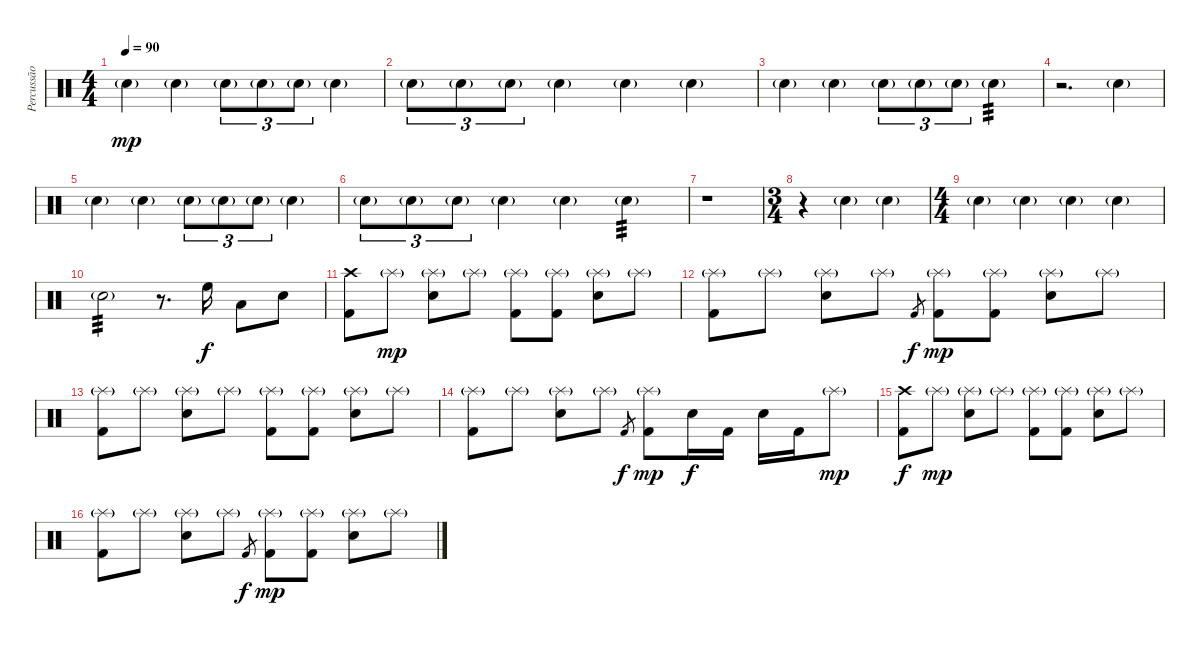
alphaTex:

\track ("Percussão" "Percussão") {instrument percussion}
\staff {score}
\articulation defaults
\ts (4 4)
\tempo 90
\clef neutral
\ks c "Snare (hit) 2"{g}.4{dy mp} "Snare (hit) 2"{g}.4 "Snare (hit) 2"{g}.8{tu (3 2)} "Snare (hit) 2"{g}.8{tu (3 2)} "Snare (hit) 2"{g}.8{tu (3 2)} "Snare (hit) 2"{g}.4
|
"Snare (hit) 2"{g}.8{tu (3 2)} "Snare (hit) 2"{g}.8{tu (3 2)} "Snare (hit) 2"{g}.8{tu (3 2)} "Snare (hit) 2"{g}.4 "Snare (hit) 2"{g}.4 "Snare (hit) 2"{g}.4 |
"Snare (hit) 2"{g}.4 "Snare (hit) 2"{g}.4 "Snare (hit) 2"{g}.8{tu (3 2)} "Snare (hit) 2"{g}.8{tu (3 2)} "Snare (hit) 2"{g}.8{tu (3 2)} "Snare (hit) 2"{g}.4{tp 3} |
r.2{d} "Snare (hit) 2"{g}.4 |
"Snare (hit) 2"{g}.4 "Snare (hit) 2"{g}.4 "Snare (hit) 2"{g}.8{tu (3 2)} "Snare (hit) 2"{g}.8{tu (3 2)} "Snare (hit) 2"{g}.8{tu (3 2)} "Snare (hit) 2"{g pm}.4 |
"Snare (hit) 2"{g}.8{tu (3 2)} "Snare (hit) 2"{g}.8{tu (3 2)} "Snare (hit) 2"{g}.8{tu (3 2)} "Snare (hit) 2"{g}.4 "Snare (hit) 2"{g}.4 "Snare (hit) 2"{g}.4{tp 3} |
r.1 |
\ts (3 4)
r.4 "Snare (hit) 2"{g}.4 "Snare (hit) 2"{g}.4 |
\ts (4 4)
"Snare (hit) 2"{g}.4 "Snare (hit) 2"{g}.4 "Snare (hit) 2"{g}.4 "Snare (hit) 2"{g}.4 |
"Snare (hit) 2"{g}.2{tp 3} r.8{d} "High Floor Tom (hit)".16{dy f volume 13} "Low Tom (hit)".8 "Snare (hit) 2".8 |
("Kick (hit) 2" "Crash high (hit)").8 "Splash (hit)"{g}.8{dy mp} ("Snare (hit) 2" "Splash (hit)"{g}).8 "Splash (hit)"{g}.8 ("Kick (hit) 2" "Splash (hit)"{g}).8 ("Kick (hit) 2" "Splash (hit)"{g}).8 ("Snare (hit) 2" "Splash (hit)"{g}).8 "Splash (hit)"{g}.8 |
("Kick (hit) 2" "Splash (hit)"{g}).8 "Splash (hit)"{g}.8 ("Snare (hit) 2" "Splash (hit)"{g}).8 "Splash (hit)"{g}.8 "Kick (hit) 2".8{gr dy f} ("Kick (hit) 2" "Splash (hit)"{g}).8{dy mp} ("Kick (hit) 2" "Splash (hit)"{g}).8 ("Snare (hit) 2" "Splash (hit)"{g}).8 "Splash (hit)"{g}.8 |
("Kick (hit) 2" "Splash (hit)"{g}).8 "Splash (hit)"{g}.8 ("Snare (hit) 2" "Splash (hit)"{g}).8 "Splash (hit)"{g}.8 ("Kick (hit) 2" "Splash (hit)"{g}).8 ("Kick (hit) 2" "Splash (hit)"{g}).8 ("Snare (hit) 2" "Splash (hit)"{g}).8 "Splash (hit)"{g}.8 |
("Kick (hit) 2" "Splash (hit)"{g}).8 "Splash (hit)"{g}.8 ("Snare (hit) 2" "Splash (hit)"{g}).8 "Splash (hit)"{g}.8 "Kick (hit) 2".8{gr dy f} ("Kick (hit) 2" "Splash (hit)"{g}).8{dy mp} "Snare (hit) 2".16{dy f} "Kick (hit) 2".16 "Snare (hit) 2".16 "Kick (hit) 2".16 "Splash (hit)"{g}.8{dy mp} |
("Kick (hit) 2" "Crash high (hit)").8{dy f} "Splash (hit)"{g}.8{dy mp} ("Snare (hit) 2" "Splash (hit)"{g}).8 "Splash (hit)"{g}.8 ("Kick (hit) 2" "Splash (hit)"{g}).8 ("Kick (hit) 2" "Splash (hit)"{g}).8 ("Snare (hit) 2" "Splash (hit)"{g}).8 "Splash (hit)"{g}.8 |
("Kick (hit) 2" "Splash (hit)"{g}).8 "Splash (hit)"{g}.8 ("Snare (hit) 2" "Splash (hit)"{g}).8 "Splash (hit)"{g}.8 "Kick (hit) 2".8{gr dy f} ("Kick (hit) 2" "Splash (hit)"{g}).8{dy mp} ("Kick (hit) 2" "Splash (hit)"{g}).8 ("Snare (hit) 2" "Splash (hit)"{g}).8 "Splash (hit)"{g}.8
